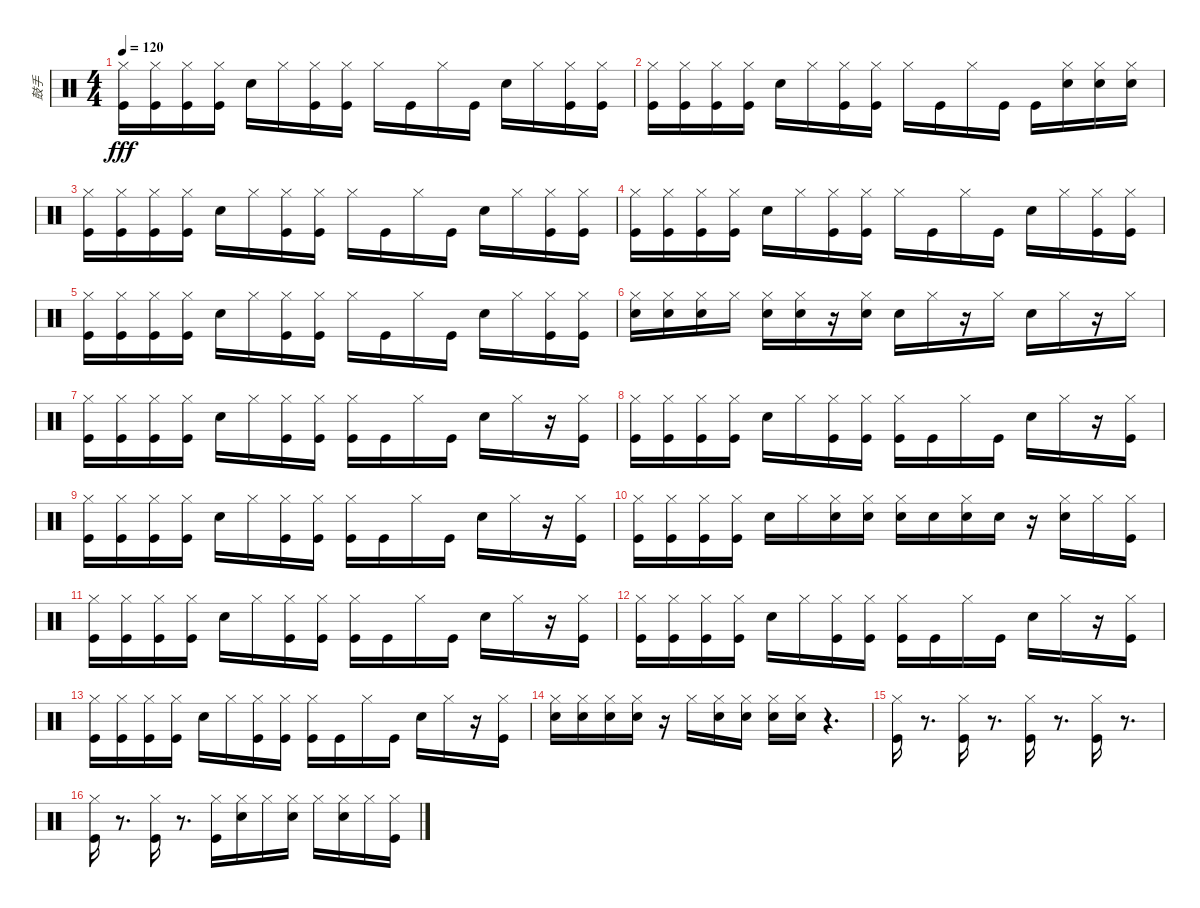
\track ("鼓手" "鼓手") {instrument percussion}
\staff {score}
\articulation defaults
\ts (4 4)
\tempo 120
\clef neutral
\ks c
("Kick (hit)" "Hi-Hat (closed)").16{dy fff} ("Kick (hit)" "Hi-Hat (closed)").16 ("Kick (hit)" "Hi-Hat (closed)").16 ("Kick (hit)" "Hi-Hat (closed)").16 "Snare (hit) 2".16 "Hi-Hat (closed)".16 ("Kick (hit)" "Hi-Hat (closed)").16 ("Kick (hit)" "Hi-Hat (closed)").16 "Hi-Hat (closed)".16 "Kick (hit)".16 "Hi-Hat (closed)".16 "Kick (hit)".16 "Snare (hit) 2".16 "Hi-Hat (closed)".16 ("Kick (hit)" "Hi-Hat (closed)").16 ("Kick (hit)" "Hi-Hat (closed)").16 |
("Kick (hit)" "Hi-Hat (closed)").16 ("Kick (hit)" "Hi-Hat (closed)").16 ("Kick (hit)" "Hi-Hat (closed)").16 ("Kick (hit)" "Hi-Hat (closed)").16 "Snare (hit) 2".16 "Hi-Hat (closed)".16 ("Kick (hit)" "Hi-Hat (closed)").16 ("Kick (hit)" "Hi-Hat (closed)").16 "Hi-Hat (closed)".16 "Kick (hit)".16 "Hi-Hat (closed)".16 "Kick (hit)".16 "Kick (hit)".16 ("Snare (hit) 2" "Hi-Hat (closed)").16 ("Snare (hit) 2" "Hi-Hat (closed)").16 ("Snare (hit) 2" "Hi-Hat (closed)").16 |
("Kick (hit)" "Hi-Hat (closed)").16 ("Kick (hit)" "Hi-Hat (closed)").16 ("Kick (hit)" "Hi-Hat (closed)").16 ("Kick (hit)" "Hi-Hat (closed)").16 "Snare (hit) 2".16 "Hi-Hat (closed)".16 ("Kick (hit)" "Hi-Hat (closed)").16 ("Kick (hit)" "Hi-Hat (closed)").16 "Hi-Hat (closed)".16 "Kick (hit)".16 "Hi-Hat (closed)".16 "Kick (hit)".16 "Snare (hit) 2".16 "Hi-Hat (closed)".16 ("Kick (hit)" "Hi-Hat (closed)").16 ("Kick (hit)" "Hi-Hat (closed)").16 |
("Kick (hit)" "Hi-Hat (closed)").16 ("Kick (hit)" "Hi-Hat (closed)").16 ("Kick (hit)" "Hi-Hat (closed)").16 ("Kick (hit)" "Hi-Hat (closed)").16 "Snare (hit) 2".16 "Hi-Hat (closed)".16 ("Kick (hit)" "Hi-Hat (closed)").16 ("Kick (hit)" "Hi-Hat (closed)").16 "Hi-Hat (closed)".16 "Kick (hit)".16 "Hi-Hat (closed)".16 "Kick (hit)".16 "Snare (hit) 2".16 "Hi-Hat (closed)".16 ("Kick (hit)" "Hi-Hat (closed)").16 ("Kick (hit)" "Hi-Hat (closed)").16 |
("Kick (hit)" "Hi-Hat (closed)").16 ("Kick (hit)" "Hi-Hat (closed)").16 ("Kick (hit)" "Hi-Hat (closed)").16 ("Kick (hit)" "Hi-Hat (closed)").16 "Snare (hit) 2".16 "Hi-Hat (closed)".16 ("Kick (hit)" "Hi-Hat (closed)").16 ("Kick (hit)" "Hi-Hat (closed)").16 "Hi-Hat (closed)".16 "Kick (hit)".16 "Hi-Hat (closed)".16 "Kick (hit)".16 "Snare (hit) 2".16 "Hi-Hat (closed)".16 ("Kick (hit)" "Hi-Hat (closed)").16 ("Kick (hit)" "Hi-Hat (closed)").16 |
("Snare (hit) 2" "Hi-Hat (closed)").16 ("Snare (hit) 2" "Hi-Hat (closed)").16 ("Snare (hit) 2" "Hi-Hat (closed)").16 "Hi-Hat (closed)".16 ("Snare (hit) 2" "Hi-Hat (closed)").16 ("Snare (hit) 2" "Hi-Hat (closed)").16 r.16 ("Snare (hit) 2" "Hi-Hat (closed)").16 "Snare (hit) 2".16 "Hi-Hat (closed)".16 r.16 "Hi-Hat (closed)".16 "Snare (hit) 2".16 "Hi-Hat (closed)".16 r.16 "Hi-Hat (closed)".16 |
("Kick (hit)" "Hi-Hat (closed)").16 ("Kick (hit)" "Hi-Hat (closed)").16 ("Kick (hit)" "Hi-Hat (closed)").16 ("Kick (hit)" "Hi-Hat (closed)").16 "Snare (hit) 2".16 "Hi-Hat (closed)".16 ("Kick (hit)" "Hi-Hat (closed)").16 ("Kick (hit)" "Hi-Hat (closed)").16 ("Kick (hit)" "Hi-Hat (closed)").16 "Kick (hit)".16 "Hi-Hat (closed)".16 "Kick (hit)".16 "Snare (hit) 2".16 "Hi-Hat (closed)".16 r.16 ("Kick (hit)" "Hi-Hat (closed)").16 |
("Kick (hit)" "Hi-Hat (closed)").16 ("Kick (hit)" "Hi-Hat (closed)").16 ("Kick (hit)" "Hi-Hat (closed)").16 ("Kick (hit)" "Hi-Hat (closed)").16 "Snare (hit) 2".16 "Hi-Hat (closed)".16 ("Kick (hit)" "Hi-Hat (closed)").16 ("Kick (hit)" "Hi-Hat (closed)").16 ("Kick (hit)" "Hi-Hat (closed)").16 "Kick (hit)".16 "Hi-Hat (closed)".16 "Kick (hit)".16 "Snare (hit) 2".16 "Hi-Hat (closed)".16 r.16 ("Kick (hit)" "Hi-Hat (closed)").16 |
("Kick (hit)" "Hi-Hat (closed)").16 ("Kick (hit)" "Hi-Hat (closed)").16 ("Kick (hit)" "Hi-Hat (closed)").16 ("Kick (hit)" "Hi-Hat (closed)").16 "Snare (hit) 2".16 "Hi-Hat (closed)".16 ("Kick (hit)" "Hi-Hat (closed)").16 ("Kick (hit)" "Hi-Hat (closed)").16 ("Kick (hit)" "Hi-Hat (closed)").16 "Kick (hit)".16 "Hi-Hat (closed)".16 "Kick (hit)".16 "Snare (hit) 2".16 "Hi-Hat (closed)".16 r.16 ("Kick (hit)" "Hi-Hat (closed)").16 |
("Kick (hit)" "Hi-Hat (closed)").16 ("Kick (hit)" "Hi-Hat (closed)").16 ("Kick (hit)" "Hi-Hat (closed)").16 ("Kick (hit)" "Hi-Hat (closed)").16 "Snare (hit) 2".16 "Hi-Hat (closed)".16 ("Snare (hit) 2" "Hi-Hat (closed)").16 ("Snare (hit) 2" "Hi-Hat (closed)").16 ("Snare (hit) 2" "Hi-Hat (closed)").16 "Snare (hit) 2".16 ("Snare (hit) 2" "Hi-Hat (closed)").16 "Snare (hit) 2".16 r.16 ("Snare (hit) 2" "Hi-Hat (closed)").16 "Hi-Hat (closed)".16 ("Kick (hit)" "Hi-Hat (closed)").16 |
("Kick (hit)" "Hi-Hat (closed)").16 ("Kick (hit)" "Hi-Hat (closed)").16 ("Kick (hit)" "Hi-Hat (closed)").16 ("Kick (hit)" "Hi-Hat (closed)").16 "Snare (hit) 2".16 "Hi-Hat (closed)".16 ("Kick (hit)" "Hi-Hat (closed)").16 ("Kick (hit)" "Hi-Hat (closed)").16 ("Kick (hit)" "Hi-Hat (closed)").16 "Kick (hit)".16 "Hi-Hat (closed)".16 "Kick (hit)".16 "Snare (hit) 2".16 "Hi-Hat (closed)".16 r.16 ("Kick (hit)" "Hi-Hat (closed)").16 |
("Kick (hit)" "Hi-Hat (closed)").16 ("Kick (hit)" "Hi-Hat (closed)").16 ("Kick (hit)" "Hi-Hat (closed)").16 ("Kick (hit)" "Hi-Hat (closed)").16 "Snare (hit) 2".16 "Hi-Hat (closed)".16 ("Kick (hit)" "Hi-Hat (closed)").16 ("Kick (hit)" "Hi-Hat (closed)").16 ("Kick (hit)" "Hi-Hat (closed)").16 "Kick (hit)".16 "Hi-Hat (closed)".16 "Kick (hit)".16 "Snare (hit) 2".16 "Hi-Hat (closed)".16 r.16 ("Kick (hit)" "Hi-Hat (closed)").16 |
("Kick (hit)" "Hi-Hat (closed)").16 ("Kick (hit)" "Hi-Hat (closed)").16 ("Kick (hit)" "Hi-Hat (closed)").16 ("Kick (hit)" "Hi-Hat (closed)").16 "Snare (hit) 2".16 "Hi-Hat (closed)".16 ("Kick (hit)" "Hi-Hat (closed)").16 ("Kick (hit)" "Hi-Hat (closed)").16 ("Kick (hit)" "Hi-Hat (closed)").16 "Kick (hit)".16 "Hi-Hat (closed)".16 "Kick (hit)".16 "Snare (hit) 2".16 "Hi-Hat (closed)".16 r.16 ("Kick (hit)" "Hi-Hat (closed)").16 |
("Snare (hit) 2" "Hi-Hat (closed)").16 ("Snare (hit) 2" "Hi-Hat (closed)").16 ("Snare (hit) 2" "Hi-Hat (closed)").16 ("Snare (hit) 2" "Hi-Hat (closed)").16 r.16 "Hi-Hat (closed)".16 ("Snare (hit) 2" "Hi-Hat (closed)").16 ("Snare (hit) 2" "Hi-Hat (closed)").16 ("Snare (hit) 2" "Hi-Hat (closed)").16 ("Snare (hit) 2" "Hi-Hat (closed)").16 r.4{d} |
("Kick (hit)" "Hi-Hat (closed)").16 r.8{d} ("Kick (hit)" "Hi-Hat (closed)").16 r.8{d} ("Kick (hit)" "Hi-Hat (closed)").16 r.8{d} ("Kick (hit)" "Hi-Hat (closed)").16 r.8{d} |
("Kick (hit)" "Hi-Hat (closed)").16 r.8{d} ("Kick (hit)" "Hi-Hat (closed)").16 r.8{d} ("Kick (hit)" "Hi-Hat (closed)").16 ("Snare (hit) 2" "Hi-Hat (closed)").16 "Hi-Hat (closed)".16 ("Snare (hit) 2" "Hi-Hat (closed)").16 "Hi-Hat (closed)".16 ("Snare (hit) 2" "Hi-Hat (closed)").16 "Hi-Hat (closed)".16 ("Kick (hit)" "Hi-Hat (closed)").16
